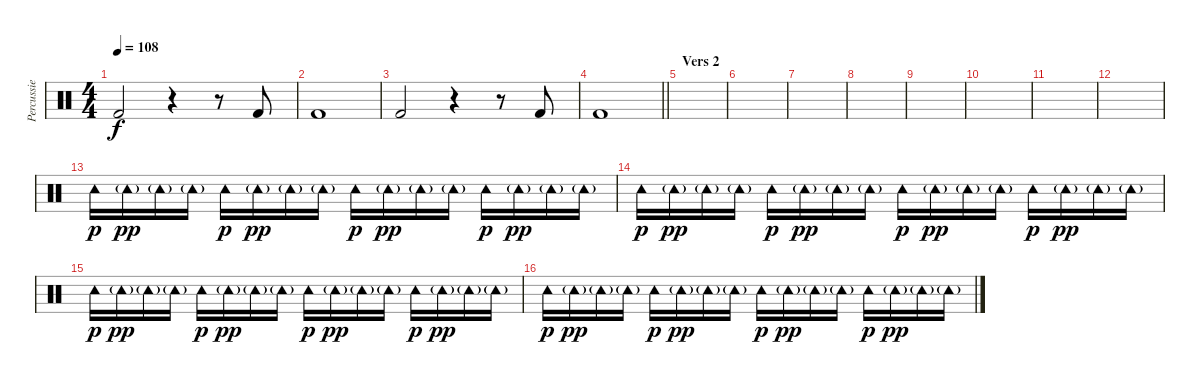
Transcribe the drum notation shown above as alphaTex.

\track ("Percussie" "Percussie") {instrument percussion}
\staff {score}
\articulation defaults
\ts (4 4)
\tempo 108
\clef neutral
\ks c "Kick (hit) 2".2{dy f}
r.4 r.8 "Kick (hit) 2".8 |
"Kick (hit) 2".1 |
"Kick (hit) 2".2 r.4 r.8 "Kick (hit) 2".8 |
\barLineRight lightlight "Kick (hit) 2".1
|
\section ("" "Vers 2")
|
|
|
|
|
|
|
|
"Tambourine (hit)".16{dy p} "Tambourine (hit)"{g}.16{dy pp} "Tambourine (hit)"{g}.16 "Tambourine (hit)"{g}.16 "Tambourine (hit)".16{dy p} "Tambourine (hit)"{g}.16{dy pp} "Tambourine (hit)"{g}.16 "Tambourine (hit)"{g}.16 "Tambourine (hit)".16{dy p} "Tambourine (hit)"{g}.16{dy pp} "Tambourine (hit)"{g}.16 "Tambourine (hit)"{g}.16 "Tambourine (hit)".16{dy p} "Tambourine (hit)"{g}.16{dy pp} "Tambourine (hit)"{g}.16 "Tambourine (hit)"{g}.16 |
"Tambourine (hit)".16{dy p} "Tambourine (hit)"{g}.16{dy pp} "Tambourine (hit)"{g}.16 "Tambourine (hit)"{g}.16 "Tambourine (hit)".16{dy p} "Tambourine (hit)"{g}.16{dy pp} "Tambourine (hit)"{g}.16 "Tambourine (hit)"{g}.16 "Tambourine (hit)".16{dy p} "Tambourine (hit)"{g}.16{dy pp} "Tambourine (hit)"{g}.16 "Tambourine (hit)"{g}.16 "Tambourine (hit)".16{dy p} "Tambourine (hit)"{g}.16{dy pp} "Tambourine (hit)"{g}.16 "Tambourine (hit)"{g}.16 |
"Tambourine (hit)".16{dy p} "Tambourine (hit)"{g}.16{dy pp} "Tambourine (hit)"{g}.16 "Tambourine (hit)"{g}.16 "Tambourine (hit)".16{dy p} "Tambourine (hit)"{g}.16{dy pp} "Tambourine (hit)"{g}.16 "Tambourine (hit)"{g}.16 "Tambourine (hit)".16{dy p} "Tambourine (hit)"{g}.16{dy pp} "Tambourine (hit)"{g}.16 "Tambourine (hit)"{g}.16 "Tambourine (hit)".16{dy p} "Tambourine (hit)"{g}.16{dy pp} "Tambourine (hit)"{g}.16 "Tambourine (hit)"{g}.16 |
"Tambourine (hit)".16{dy p} "Tambourine (hit)"{g}.16{dy pp} "Tambourine (hit)"{g}.16 "Tambourine (hit)"{g}.16 "Tambourine (hit)".16{dy p} "Tambourine (hit)"{g}.16{dy pp} "Tambourine (hit)"{g}.16 "Tambourine (hit)"{g}.16 "Tambourine (hit)".16{dy p} "Tambourine (hit)"{g}.16{dy pp} "Tambourine (hit)"{g}.16 "Tambourine (hit)"{g}.16 "Tambourine (hit)".16{dy p} "Tambourine (hit)"{g}.16{dy pp} "Tambourine (hit)"{g}.16 "Tambourine (hit)"{g}.16
